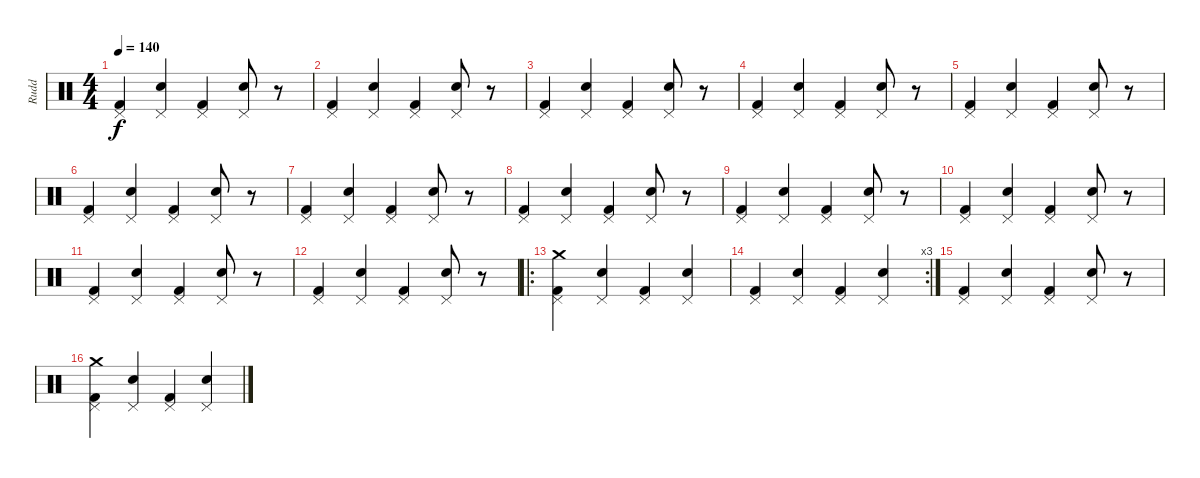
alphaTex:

\track ("Rudd" "Rudd") {instrument percussion}
\staff {score}
\articulation defaults
\ts (4 4)
\tempo 140
\clef neutral
\ks c
("Kick (hit) 2" "Pedal Hi-Hat (hit)").4{dy f} ("Snare (hit) 2" "Pedal Hi-Hat (hit)").4 ("Kick (hit) 2" "Pedal Hi-Hat (hit)").4 ("Snare (hit) 2" "Pedal Hi-Hat (hit)").8 r.8 |
("Kick (hit) 2" "Pedal Hi-Hat (hit)").4 ("Snare (hit) 2" "Pedal Hi-Hat (hit)").4 ("Kick (hit) 2" "Pedal Hi-Hat (hit)").4 ("Snare (hit) 2" "Pedal Hi-Hat (hit)").8 r.8 |
("Kick (hit) 2" "Pedal Hi-Hat (hit)").4 ("Snare (hit) 2" "Pedal Hi-Hat (hit)").4 ("Kick (hit) 2" "Pedal Hi-Hat (hit)").4 ("Snare (hit) 2" "Pedal Hi-Hat (hit)").8 r.8 |
("Kick (hit) 2" "Pedal Hi-Hat (hit)").4 ("Snare (hit) 2" "Pedal Hi-Hat (hit)").4 ("Kick (hit) 2" "Pedal Hi-Hat (hit)").4 ("Snare (hit) 2" "Pedal Hi-Hat (hit)").8 r.8 |
("Kick (hit) 2" "Pedal Hi-Hat (hit)").4 ("Snare (hit) 2" "Pedal Hi-Hat (hit)").4 ("Kick (hit) 2" "Pedal Hi-Hat (hit)").4 ("Snare (hit) 2" "Pedal Hi-Hat (hit)").8 r.8 |
("Kick (hit) 2" "Pedal Hi-Hat (hit)").4 ("Snare (hit) 2" "Pedal Hi-Hat (hit)").4 ("Kick (hit) 2" "Pedal Hi-Hat (hit)").4 ("Snare (hit) 2" "Pedal Hi-Hat (hit)").8 r.8 |
("Kick (hit) 2" "Pedal Hi-Hat (hit)").4 ("Snare (hit) 2" "Pedal Hi-Hat (hit)").4 ("Kick (hit) 2" "Pedal Hi-Hat (hit)").4 ("Snare (hit) 2" "Pedal Hi-Hat (hit)").8 r.8 |
("Kick (hit) 2" "Pedal Hi-Hat (hit)").4 ("Snare (hit) 2" "Pedal Hi-Hat (hit)").4 ("Kick (hit) 2" "Pedal Hi-Hat (hit)").4 ("Snare (hit) 2" "Pedal Hi-Hat (hit)").8 r.8 |
("Kick (hit) 2" "Pedal Hi-Hat (hit)").4 ("Snare (hit) 2" "Pedal Hi-Hat (hit)").4 ("Kick (hit) 2" "Pedal Hi-Hat (hit)").4 ("Snare (hit) 2" "Pedal Hi-Hat (hit)").8 r.8 |
("Kick (hit) 2" "Pedal Hi-Hat (hit)").4 ("Snare (hit) 2" "Pedal Hi-Hat (hit)").4 ("Kick (hit) 2" "Pedal Hi-Hat (hit)").4 ("Snare (hit) 2" "Pedal Hi-Hat (hit)").8 r.8 |
("Kick (hit) 2" "Pedal Hi-Hat (hit)").4 ("Snare (hit) 2" "Pedal Hi-Hat (hit)").4 ("Kick (hit) 2" "Pedal Hi-Hat (hit)").4 ("Snare (hit) 2" "Pedal Hi-Hat (hit)").8 r.8 |
("Kick (hit) 2" "Pedal Hi-Hat (hit)").4 ("Snare (hit) 2" "Pedal Hi-Hat (hit)").4 ("Kick (hit) 2" "Pedal Hi-Hat (hit)").4 ("Snare (hit) 2" "Pedal Hi-Hat (hit)").8 r.8 |
\ro
("Kick (hit) 2" "Pedal Hi-Hat (hit)" "Crash medium (hit)").4 ("Snare (hit) 2" "Pedal Hi-Hat (hit)").4 ("Kick (hit) 2" "Pedal Hi-Hat (hit)").4 ("Snare (hit) 2" "Pedal Hi-Hat (hit)").4 |
\rc 3
("Kick (hit) 2" "Pedal Hi-Hat (hit)").4 ("Snare (hit) 2" "Pedal Hi-Hat (hit)").4 ("Kick (hit) 2" "Pedal Hi-Hat (hit)").4 ("Snare (hit) 2" "Pedal Hi-Hat (hit)").4 |
("Kick (hit) 2" "Pedal Hi-Hat (hit)").4 ("Snare (hit) 2" "Pedal Hi-Hat (hit)").4 ("Kick (hit) 2" "Pedal Hi-Hat (hit)").4 ("Snare (hit) 2" "Pedal Hi-Hat (hit)").8 r.8 |
("Kick (hit) 2" "Pedal Hi-Hat (hit)" "Crash medium (hit)").4 ("Snare (hit) 2" "Pedal Hi-Hat (hit)").4 ("Kick (hit) 2" "Pedal Hi-Hat (hit)").4 ("Snare (hit) 2" "Pedal Hi-Hat (hit)").4
